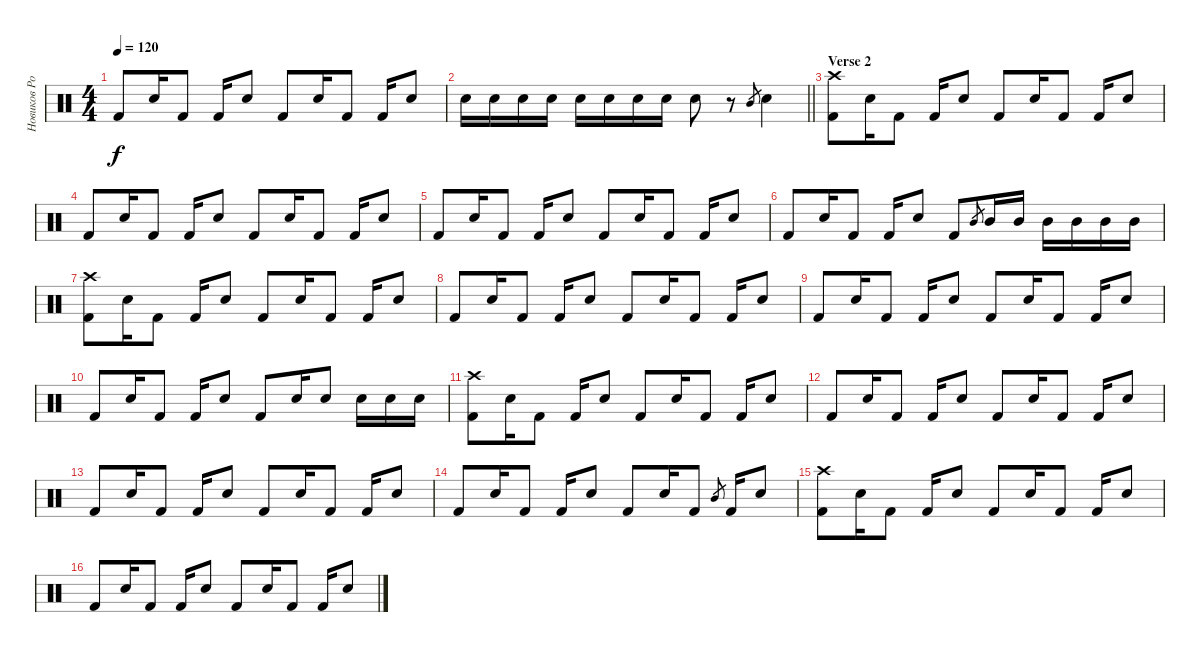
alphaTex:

\track ("Новиков Роман ( Ударные )" "Новиков Ро") {instrument percussion}
\staff {score}
\articulation defaults
\ts (4 4)
\tempo 120
\clef neutral
\ks c "Kick (hit) 2".8{dy f} "Electric Snare (hit)".16 "Kick (hit) 2".8 "Kick (hit) 2".16 "Electric Snare (hit)".8 "Kick (hit) 2".8 "Electric Snare (hit)".16 "Kick (hit) 2".8 "Kick (hit) 2".16 "Electric Snare (hit)".8
|
\barLineRight lightlight "Snare (hit) 2".16 "Snare (hit) 2".16 "Snare (hit) 2".16 "Snare (hit) 2".16 "Snare (hit) 2".16 "Snare (hit) 2".16 "Snare (hit) 2".16 "Snare (hit) 2".16 "Snare (hit) 2".8
r.8 "Mid Tom (hit)"{h}.8{gr} "Snare (hit) 2".4 |
\section ("" "Verse 2")
("Crash high (hit)" "Kick (hit) 2").8 "Electric Snare (hit)".16 "Kick (hit) 2".8 "Kick (hit) 2".16 "Electric Snare (hit)".8 "Kick (hit) 2".8 "Electric Snare (hit)".16 "Kick (hit) 2".8 "Kick (hit) 2".16 "Electric Snare (hit)".8 |
"Kick (hit) 2".8 "Electric Snare (hit)".16 "Kick (hit) 2".8 "Kick (hit) 2".16 "Electric Snare (hit)".8 "Kick (hit) 2".8 "Electric Snare (hit)".16 "Kick (hit) 2".8 "Kick (hit) 2".16 "Electric Snare (hit)".8 |
"Kick (hit) 2".8 "Electric Snare (hit)".16 "Kick (hit) 2".8 "Kick (hit) 2".16 "Electric Snare (hit)".8 "Kick (hit) 2".8 "Electric Snare (hit)".16 "Kick (hit) 2".8 "Kick (hit) 2".16 "Electric Snare (hit)".8 |
"Kick (hit) 2".8 "Electric Snare (hit)".16 "Kick (hit) 2".8 "Kick (hit) 2".16 "Electric Snare (hit)".8 "Kick (hit) 2".8 "Mid Tom (hit)"{h}.8{gr} "Mid Tom (hit)".16 "Mid Tom (hit)".16 "Mid Tom (hit)".16 "Mid Tom (hit)".16 "Mid Tom (hit)".16 "Mid Tom (hit)".16 |
("Crash high (hit)" "Kick (hit) 2").8 "Electric Snare (hit)".16 "Kick (hit) 2".8 "Kick (hit) 2".16 "Electric Snare (hit)".8 "Kick (hit) 2".8 "Electric Snare (hit)".16 "Kick (hit) 2".8 "Kick (hit) 2".16 "Electric Snare (hit)".8 |
"Kick (hit) 2".8 "Electric Snare (hit)".16 "Kick (hit) 2".8 "Kick (hit) 2".16 "Electric Snare (hit)".8 "Kick (hit) 2".8 "Electric Snare (hit)".16 "Kick (hit) 2".8 "Kick (hit) 2".16 "Electric Snare (hit)".8 |
"Kick (hit) 2".8 "Electric Snare (hit)".16 "Kick (hit) 2".8 "Kick (hit) 2".16 "Electric Snare (hit)".8 "Kick (hit) 2".8 "Electric Snare (hit)".16 "Kick (hit) 2".8 "Kick (hit) 2".16 "Electric Snare (hit)".8 |
"Kick (hit) 2".8 "Electric Snare (hit)".16 "Kick (hit) 2".8 "Kick (hit) 2".16 "Electric Snare (hit)".8 "Kick (hit) 2".8 "Electric Snare (hit)".16 "Snare (hit) 2".8 "Snare (hit) 2".16 "Snare (hit) 2".16 "Snare (hit) 2".16 |
("Crash high (hit)" "Kick (hit) 2").8 "Electric Snare (hit)".16 "Kick (hit) 2".8 "Kick (hit) 2".16 "Electric Snare (hit)".8 "Kick (hit) 2".8 "Electric Snare (hit)".16 "Kick (hit) 2".8 "Kick (hit) 2".16 "Electric Snare (hit)".8 |
"Kick (hit) 2".8 "Electric Snare (hit)".16 "Kick (hit) 2".8 "Kick (hit) 2".16 "Electric Snare (hit)".8 "Kick (hit) 2".8 "Electric Snare (hit)".16 "Kick (hit) 2".8 "Kick (hit) 2".16 "Electric Snare (hit)".8 |
"Kick (hit) 2".8 "Electric Snare (hit)".16 "Kick (hit) 2".8 "Kick (hit) 2".16 "Electric Snare (hit)".8 "Kick (hit) 2".8 "Electric Snare (hit)".16 "Kick (hit) 2".8 "Kick (hit) 2".16 "Electric Snare (hit)".8 |
"Kick (hit) 2".8 "Electric Snare (hit)".16 "Kick (hit) 2".8 "Kick (hit) 2".16 "Electric Snare (hit)".8 "Kick (hit) 2".8 "Electric Snare (hit)".16 "Kick (hit) 2".8 "Mid Tom (hit)"{h}.8{gr} "Kick (hit) 2".16 "Snare (hit) 2".8 |
("Crash high (hit)" "Kick (hit) 2").8 "Electric Snare (hit)".16 "Kick (hit) 2".8 "Kick (hit) 2".16 "Electric Snare (hit)".8 "Kick (hit) 2".8 "Electric Snare (hit)".16 "Kick (hit) 2".8 "Kick (hit) 2".16 "Electric Snare (hit)".8 |
"Kick (hit) 2".8 "Electric Snare (hit)".16 "Kick (hit) 2".8 "Kick (hit) 2".16 "Electric Snare (hit)".8 "Kick (hit) 2".8 "Electric Snare (hit)".16 "Kick (hit) 2".8 "Kick (hit) 2".16 "Electric Snare (hit)".8
